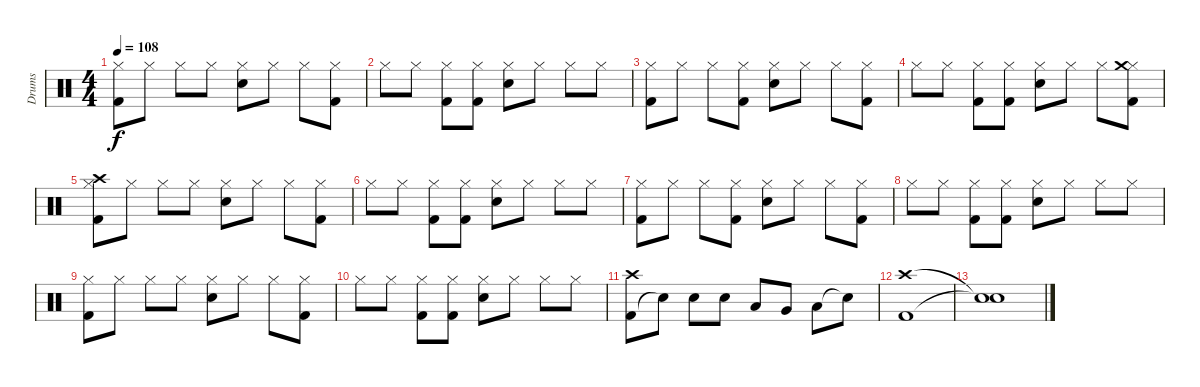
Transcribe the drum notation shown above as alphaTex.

\track ("Drums" "Drums") {instrument percussion}
\staff {score}
\articulation defaults
\ts (4 4)
\tempo 108
\clef neutral
\ks c
("Kick (hit) 2" "Hi-Hat (closed)").8{dy f} "Hi-Hat (closed)".8 "Hi-Hat (closed)".8 "Hi-Hat (closed)".8 ("Electric Snare (hit)" "Hi-Hat (closed)").8 "Hi-Hat (closed)".8 "Hi-Hat (closed)".8 ("Kick (hit) 2" "Hi-Hat (closed)").8 |
"Hi-Hat (closed)".8 "Hi-Hat (closed)".8 ("Kick (hit) 2" "Hi-Hat (closed)").8 ("Kick (hit) 2" "Hi-Hat (closed)").8 ("Electric Snare (hit)" "Hi-Hat (closed)").8 "Hi-Hat (closed)".8 "Hi-Hat (closed)".8 "Hi-Hat (closed)".8 |
("Kick (hit) 2" "Hi-Hat (closed)").8 "Hi-Hat (closed)".8 "Hi-Hat (closed)".8 ("Kick (hit) 2" "Hi-Hat (closed)").8 ("Electric Snare (hit)" "Hi-Hat (closed)").8 "Hi-Hat (closed)".8 "Hi-Hat (closed)".8 ("Kick (hit) 2" "Hi-Hat (closed)").8 |
"Hi-Hat (closed)".8 "Hi-Hat (closed)".8 ("Kick (hit) 2" "Hi-Hat (closed)").8 ("Kick (hit) 2" "Hi-Hat (closed)").8 ("Electric Snare (hit)" "Hi-Hat (closed)").8 "Hi-Hat (closed)".8 "Hi-Hat (closed)".8 ("Kick (hit) 2" "Hi-Hat (closed)" "Crash medium (hit)").8 |
("Kick (hit) 2" "Hi-Hat (closed)" "Crash high (hit)").8 "Hi-Hat (closed)".8 "Hi-Hat (closed)".8 "Hi-Hat (closed)".8 ("Electric Snare (hit)" "Hi-Hat (closed)").8 "Hi-Hat (closed)".8 "Hi-Hat (closed)".8 ("Kick (hit) 2" "Hi-Hat (closed)").8 |
"Hi-Hat (closed)".8 "Hi-Hat (closed)".8 ("Kick (hit) 2" "Hi-Hat (closed)").8 ("Kick (hit) 2" "Hi-Hat (closed)").8 ("Electric Snare (hit)" "Hi-Hat (closed)").8 "Hi-Hat (closed)".8 "Hi-Hat (closed)".8 "Hi-Hat (closed)".8 |
("Kick (hit) 2" "Hi-Hat (closed)").8 "Hi-Hat (closed)".8 "Hi-Hat (closed)".8 ("Kick (hit) 2" "Hi-Hat (closed)").8 ("Electric Snare (hit)" "Hi-Hat (closed)").8 "Hi-Hat (closed)".8 "Hi-Hat (closed)".8 ("Kick (hit) 2" "Hi-Hat (closed)").8 |
"Hi-Hat (closed)".8 "Hi-Hat (closed)".8 ("Kick (hit) 2" "Hi-Hat (closed)").8 ("Kick (hit) 2" "Hi-Hat (closed)").8 ("Electric Snare (hit)" "Hi-Hat (closed)").8 "Hi-Hat (closed)".8 "Hi-Hat (closed)".8 "Hi-Hat (closed)".8 |
("Kick (hit) 2" "Hi-Hat (closed)").8 "Hi-Hat (closed)".8 "Hi-Hat (closed)".8 "Hi-Hat (closed)".8 ("Electric Snare (hit)" "Hi-Hat (closed)").8 "Hi-Hat (closed)".8 "Hi-Hat (closed)".8 ("Kick (hit) 2" "Hi-Hat (closed)").8 |
"Hi-Hat (closed)".8 "Hi-Hat (closed)".8 ("Kick (hit) 2" "Hi-Hat (closed)").8 ("Kick (hit) 2" "Hi-Hat (closed)").8 ("Electric Snare (hit)" "Hi-Hat (closed)").8 "Hi-Hat (closed)".8 "Hi-Hat (closed)".8 "Hi-Hat (closed)".8 |
("Kick (hit) 2" "Crash high (hit)").8 "Snare (hit)"{t}.8 "Electric Snare (hit)".8 "Electric Snare (hit)".8 "Low Tom (hit)".8 "Very Low Tom (hit)".8 "Low Floor Tom (hit)".8 "Snare (hit)"{t}.8 |
("Kick (hit) 2" "Crash high (hit)").1 |
("Snare (hit)"{t} "Snare (hit)"{t}).1
